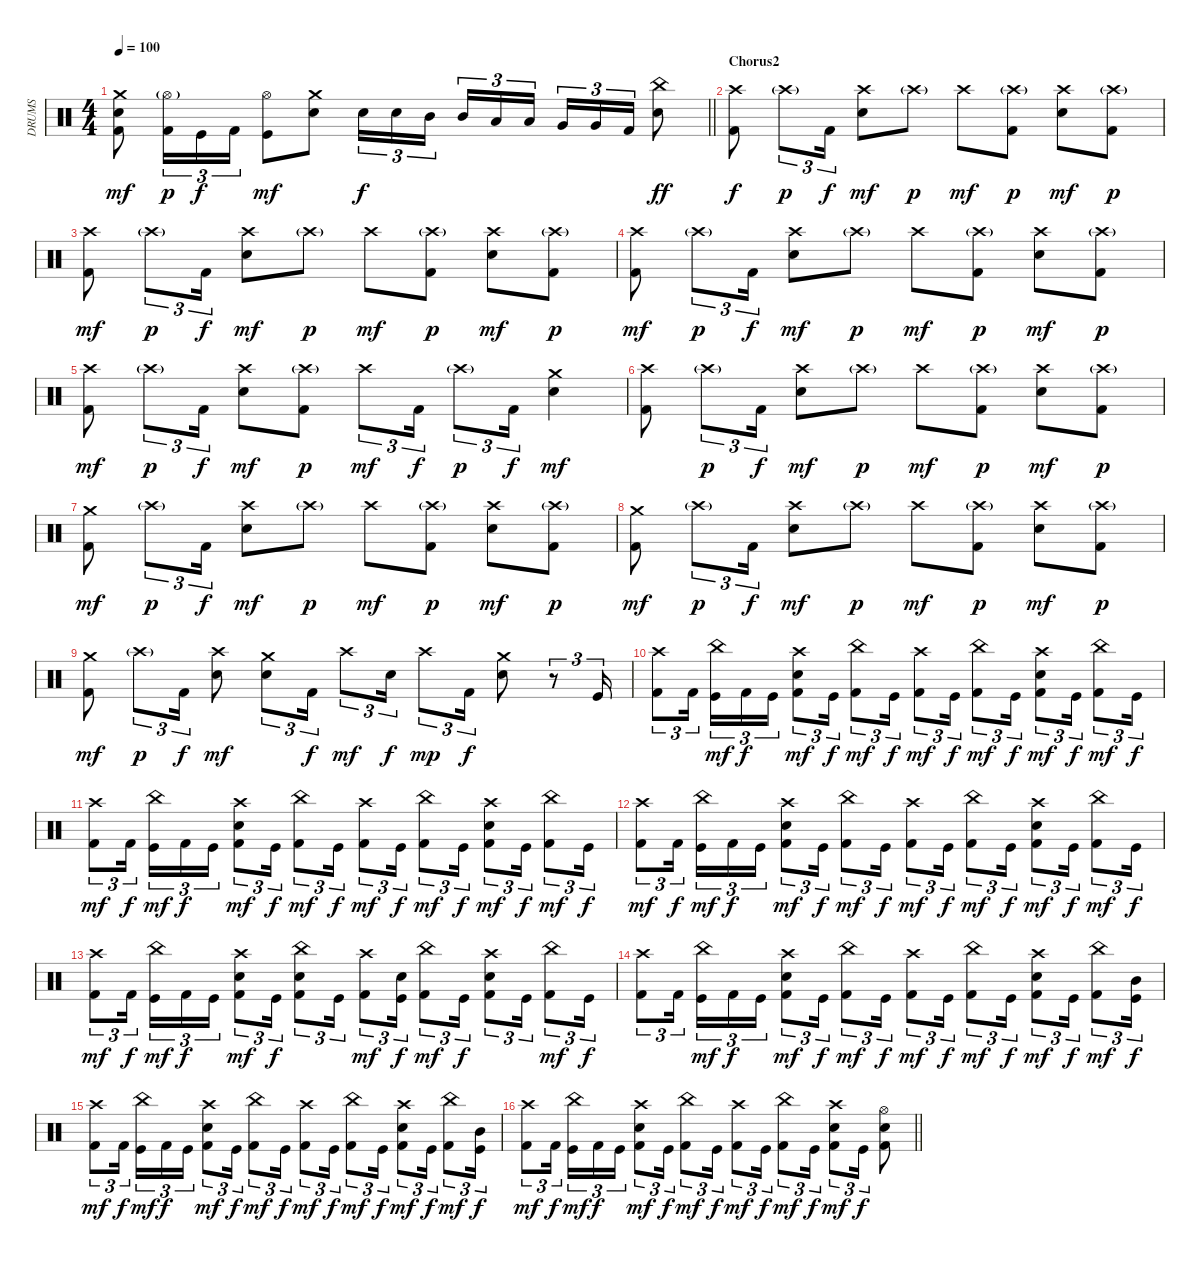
\track ("DRUMS" "DRUMS") {instrument percussion}
\staff {score}
\articulation defaults
\ts (4 4)
\tempo 100
\clef neutral
\barLineRight lightlight
\ks c
("Crash medium (hit)" "Snare (hit) 2" "Kick (hit) 2").8{dy mf} ("Hi-Hat (open)"{g} "Kick (hit) 2").16{tu (3 2) dy p} "Kick (hit)".16{tu (3 2) dy f} "Kick (hit) 2".16{tu (3 2)} ("Hi-Hat (open)" "Kick (hit)").8{dy mf} ("Crash medium (hit)" "Snare (hit) 2").8 "Electric Snare (hit)".16{tu (3 2) dy f} "Snare (hit) 2".16{tu (3 2)} "Mid Tom (hit)".16{tu (3 2) beam splitsecondary} "Mid Tom (hit)".16{tu (3 2)} "Low Tom (hit)".16{tu (3 2)} "Low Tom (hit)".16{tu (3 2)} "Very Low Tom (hit)".16{tu (3 2)} "Very Low Tom (hit)".16{tu (3 2)} "Kick (hit) 2".16{tu (3 2)} ("China (hit)" "Snare (hit) 2").8{dy ff} |
\section ("" "Chorus2")
("Crash high (hit)" "Kick (hit) 2").8{dy f} "Crash high (hit)"{g}.8{tu (3 2) dy p} "Kick (hit) 2".16{tu (3 2) dy f} ("Crash high (hit)" "Snare (hit) 2").8{dy mf} "Crash high (hit)"{g}.8{dy p} "Crash high (hit)".8{dy mf} ("Crash high (hit)"{g} "Kick (hit) 2").8{dy p} ("Crash high (hit)" "Snare (hit) 2").8{dy mf} ("Crash high (hit)"{g} "Kick (hit) 2").8{dy p} |
("Crash high (hit)" "Kick (hit) 2").8{dy mf} "Crash high (hit)"{g}.8{tu (3 2) dy p} "Kick (hit) 2".16{tu (3 2) dy f} ("Crash high (hit)" "Snare (hit) 2").8{dy mf} "Crash high (hit)"{g}.8{dy p} "Crash high (hit)".8{dy mf} ("Crash high (hit)"{g} "Kick (hit) 2").8{dy p} ("Crash high (hit)" "Snare (hit) 2").8{dy mf} ("Crash high (hit)"{g} "Kick (hit) 2").8{dy p} |
("Crash high (hit)" "Kick (hit) 2").8{dy mf} "Crash high (hit)"{g}.8{tu (3 2) dy p} "Kick (hit) 2".16{tu (3 2) dy f} ("Crash high (hit)" "Snare (hit) 2").8{dy mf} "Crash high (hit)"{g}.8{dy p} "Crash high (hit)".8{dy mf} ("Crash high (hit)"{g} "Kick (hit) 2").8{dy p} ("Crash high (hit)" "Snare (hit) 2").8{dy mf} ("Crash high (hit)"{g} "Kick (hit) 2").8{dy p} |
("Crash high (hit)" "Kick (hit) 2").8{dy mf} "Crash high (hit)"{g}.8{tu (3 2) dy p} "Kick (hit) 2".16{tu (3 2) dy f} ("Crash high (hit)" "Snare (hit) 2").8{dy mf} ("Crash high (hit)"{g} "Kick (hit) 2").8{dy p} "Crash high (hit)".8{tu (3 2) dy mf} "Kick (hit) 2".16{tu (3 2) dy f} "Crash high (hit)"{g}.8{tu (3 2) dy p} "Kick (hit) 2".16{tu (3 2) dy f} ("Crash medium (hit)" "Snare (hit) 2").4{dy mf} |
("Crash high (hit)" "Kick (hit) 2").8 "Crash high (hit)"{g}.8{tu (3 2) dy p} "Kick (hit) 2".16{tu (3 2) dy f} ("Crash high (hit)" "Snare (hit) 2").8{dy mf} "Crash high (hit)"{g}.8{dy p} "Crash high (hit)".8{dy mf} ("Crash high (hit)"{g} "Kick (hit) 2").8{dy p} ("Crash high (hit)" "Snare (hit) 2").8{dy mf} ("Crash high (hit)"{g} "Kick (hit) 2").8{dy p} |
("Crash medium (hit)" "Kick (hit) 2").8{dy mf} "Crash high (hit)"{g}.8{tu (3 2) dy p} "Kick (hit) 2".16{tu (3 2) dy f} ("Crash high (hit)" "Snare (hit) 2").8{dy mf} "Crash high (hit)"{g}.8{dy p} "Crash high (hit)".8{dy mf} ("Crash high (hit)"{g} "Kick (hit) 2").8{dy p} ("Crash high (hit)" "Snare (hit) 2").8{dy mf} ("Crash high (hit)"{g} "Kick (hit) 2").8{dy p} |
("Crash medium (hit)" "Kick (hit) 2").8{dy mf} "Crash high (hit)"{g}.8{tu (3 2) dy p} "Kick (hit) 2".16{tu (3 2) dy f} ("Crash high (hit)" "Snare (hit) 2").8{dy mf} "Crash high (hit)"{g}.8{dy p} "Crash high (hit)".8{dy mf} ("Crash high (hit)"{g} "Kick (hit) 2").8{dy p} ("Crash high (hit)" "Snare (hit) 2").8{dy mf} ("Crash high (hit)"{g} "Kick (hit) 2").8{dy p} |
("Crash medium (hit)" "Kick (hit) 2").8{dy mf} "Crash high (hit)"{g}.8{tu (3 2) dy p} "Kick (hit) 2".16{tu (3 2) dy f} ("Crash high (hit)" "Snare (hit) 2").8{dy mf} ("Crash medium (hit)" "Snare (hit) 2").8{tu (3 2)} "Kick (hit) 2".16{tu (3 2) dy f} "Crash high (hit)".8{tu (3 2) dy mf} "Snare (hit) 2".16{tu (3 2) dy f} "Crash high (hit)".8{tu (3 2) dy mp} "Kick (hit) 2".16{tu (3 2) dy f} ("Crash medium (hit)" "Snare (hit) 2").8 r.8{tu (3 2)} "Kick (hit)".16{tu (3 2)} |
("Crash high (hit)" "Kick (hit) 2").8{tu (3 2)} "Kick (hit) 2".16{tu (3 2) beam splitsecondary} ("China (hit)" "Kick (hit)").16{tu (3 2) dy mf} "Kick (hit) 2".16{tu (3 2) dy f} "Kick (hit)".16{tu (3 2)} ("Crash high (hit)" "Snare (hit) 2" "Kick (hit) 2").8{tu (3 2) dy mf} "Kick (hit)".16{tu (3 2) dy f} ("China (hit)" "Kick (hit) 2").8{tu (3 2) dy mf} "Kick (hit)".16{tu (3 2) dy f} ("Crash high (hit)" "Kick (hit) 2").8{tu (3 2) dy mf} "Kick (hit)".16{tu (3 2) dy f} ("China (hit)" "Kick (hit) 2").8{tu (3 2) dy mf} "Kick (hit)".16{tu (3 2) dy f} ("Crash high (hit)" "Snare (hit) 2" "Kick (hit) 2").8{tu (3 2) dy mf} "Kick (hit)".16{tu (3 2) dy f} ("China (hit)" "Kick (hit) 2").8{tu (3 2) dy mf} "Kick (hit)".16{tu (3 2) dy f} |
("Crash high (hit)" "Kick (hit) 2").8{tu (3 2) dy mf} "Kick (hit) 2".16{tu (3 2) dy f beam splitsecondary} ("China (hit)" "Kick (hit)").16{tu (3 2) dy mf} "Kick (hit) 2".16{tu (3 2) dy f} "Kick (hit)".16{tu (3 2)} ("Crash high (hit)" "Snare (hit) 2" "Kick (hit) 2").8{tu (3 2) dy mf} "Kick (hit)".16{tu (3 2) dy f} ("China (hit)" "Kick (hit) 2").8{tu (3 2) dy mf} "Kick (hit)".16{tu (3 2) dy f} ("Crash high (hit)" "Kick (hit) 2").8{tu (3 2) dy mf} "Kick (hit)".16{tu (3 2) dy f} ("China (hit)" "Kick (hit) 2").8{tu (3 2) dy mf} "Kick (hit)".16{tu (3 2) dy f} ("Crash high (hit)" "Snare (hit) 2" "Kick (hit) 2").8{tu (3 2) dy mf} "Kick (hit)".16{tu (3 2) dy f} ("China (hit)" "Kick (hit) 2").8{tu (3 2) dy mf} "Kick (hit)".16{tu (3 2) dy f} |
("Crash high (hit)" "Kick (hit) 2").8{tu (3 2) dy mf} "Kick (hit) 2".16{tu (3 2) dy f beam splitsecondary} ("China (hit)" "Kick (hit)").16{tu (3 2) dy mf} "Kick (hit) 2".16{tu (3 2) dy f} "Kick (hit)".16{tu (3 2)} ("Crash high (hit)" "Snare (hit) 2" "Kick (hit) 2").8{tu (3 2) dy mf} "Kick (hit)".16{tu (3 2) dy f} ("China (hit)" "Kick (hit) 2").8{tu (3 2) dy mf} "Kick (hit)".16{tu (3 2) dy f} ("Crash high (hit)" "Kick (hit) 2").8{tu (3 2) dy mf} "Kick (hit)".16{tu (3 2) dy f} ("China (hit)" "Kick (hit) 2").8{tu (3 2) dy mf} "Kick (hit)".16{tu (3 2) dy f} ("Crash high (hit)" "Snare (hit) 2" "Kick (hit) 2").8{tu (3 2) dy mf} "Kick (hit)".16{tu (3 2) dy f} ("China (hit)" "Kick (hit) 2").8{tu (3 2) dy mf} "Kick (hit)".16{tu (3 2) dy f} |
("Crash high (hit)" "Kick (hit) 2").8{tu (3 2) dy mf} "Kick (hit) 2".16{tu (3 2) dy f beam splitsecondary} ("China (hit)" "Kick (hit)").16{tu (3 2) dy mf} "Kick (hit) 2".16{tu (3 2) dy f} "Kick (hit)".16{tu (3 2)} ("Crash high (hit)" "Snare (hit) 2" "Kick (hit) 2").8{tu (3 2) dy mf} "Kick (hit)".16{tu (3 2) dy f} ("China (hit)" "Snare (hit) 2" "Kick (hit) 2").8{tu (3 2)} "Kick (hit)".16{tu (3 2)} ("Crash high (hit)" "Kick (hit) 2").8{tu (3 2) dy mf} ("Snare (hit) 2" "Kick (hit)").16{tu (3 2) dy f} ("China (hit)" "Kick (hit) 2").8{tu (3 2) dy mf} "Kick (hit)".16{tu (3 2) dy f} ("Crash high (hit)" "Snare (hit) 2" "Kick (hit) 2").8{tu (3 2)} "Kick (hit)".16{tu (3 2)} ("China (hit)" "Kick (hit) 2").8{tu (3 2) dy mf} "Kick (hit)".16{tu (3 2) dy f} |
("Crash high (hit)" "Kick (hit) 2").8{tu (3 2)} "Kick (hit) 2".16{tu (3 2) beam splitsecondary} ("China (hit)" "Kick (hit)").16{tu (3 2) dy mf} "Kick (hit) 2".16{tu (3 2) dy f} "Kick (hit)".16{tu (3 2)} ("Crash high (hit)" "Snare (hit) 2" "Kick (hit) 2").8{tu (3 2) dy mf} "Kick (hit)".16{tu (3 2) dy f} ("China (hit)" "Kick (hit) 2").8{tu (3 2) dy mf} "Kick (hit)".16{tu (3 2) dy f} ("Crash high (hit)" "Kick (hit) 2").8{tu (3 2) dy mf} "Kick (hit)".16{tu (3 2) dy f} ("China (hit)" "Kick (hit) 2").8{tu (3 2) dy mf} "Kick (hit)".16{tu (3 2) dy f} ("Crash high (hit)" "Snare (hit) 2" "Kick (hit) 2").8{tu (3 2) dy mf} "Kick (hit)".16{tu (3 2) dy f} ("China (hit)" "Kick (hit) 2").8{tu (3 2) dy mf} ("Mid Tom (hit)" "Kick (hit)").16{tu (3 2) dy f} |
("Crash high (hit)" "Kick (hit) 2").8{tu (3 2) dy mf} "Kick (hit) 2".16{tu (3 2) dy f beam splitsecondary} ("China (hit)" "Kick (hit)").16{tu (3 2) dy mf} "Kick (hit) 2".16{tu (3 2) dy f} "Kick (hit)".16{tu (3 2)} ("Crash high (hit)" "Snare (hit) 2" "Kick (hit) 2").8{tu (3 2) dy mf} "Kick (hit)".16{tu (3 2) dy f} ("China (hit)" "Kick (hit) 2").8{tu (3 2) dy mf} "Kick (hit)".16{tu (3 2) dy f} ("Crash high (hit)" "Kick (hit) 2").8{tu (3 2) dy mf} "Kick (hit)".16{tu (3 2) dy f} ("China (hit)" "Kick (hit) 2").8{tu (3 2) dy mf} "Kick (hit)".16{tu (3 2) dy f} ("Crash high (hit)" "Snare (hit) 2" "Kick (hit) 2").8{tu (3 2) dy mf} "Kick (hit)".16{tu (3 2) dy f} ("China (hit)" "Kick (hit) 2").8{tu (3 2) dy mf} ("Mid Tom (hit)" "Kick (hit)").16{tu (3 2) dy f} |
\barLineRight lightlight
("Crash high (hit)" "Kick (hit) 2").8{tu (3 2) dy mf} "Kick (hit) 2".16{tu (3 2) dy f beam splitsecondary} ("China (hit)" "Kick (hit)").16{tu (3 2) dy mf} "Kick (hit) 2".16{tu (3 2) dy f} "Kick (hit)".16{tu (3 2)} ("Crash high (hit)" "Snare (hit) 2" "Kick (hit) 2").8{tu (3 2) dy mf} "Kick (hit)".16{tu (3 2) dy f} ("China (hit)" "Kick (hit) 2").8{tu (3 2) dy mf} "Kick (hit)".16{tu (3 2) dy f} ("Crash high (hit)" "Kick (hit) 2").8{tu (3 2) dy mf} "Kick (hit)".16{tu (3 2) dy f} ("China (hit)" "Kick (hit) 2").8{tu (3 2) dy mf} "Kick (hit)".16{tu (3 2) dy f} ("Crash high (hit)" "Snare (hit) 2" "Kick (hit) 2").8{tu (3 2) dy mf} "Kick (hit)".16{tu (3 2) dy f} ("Hi-Hat (open)" "Snare (hit) 2" "Kick (hit) 2").8
